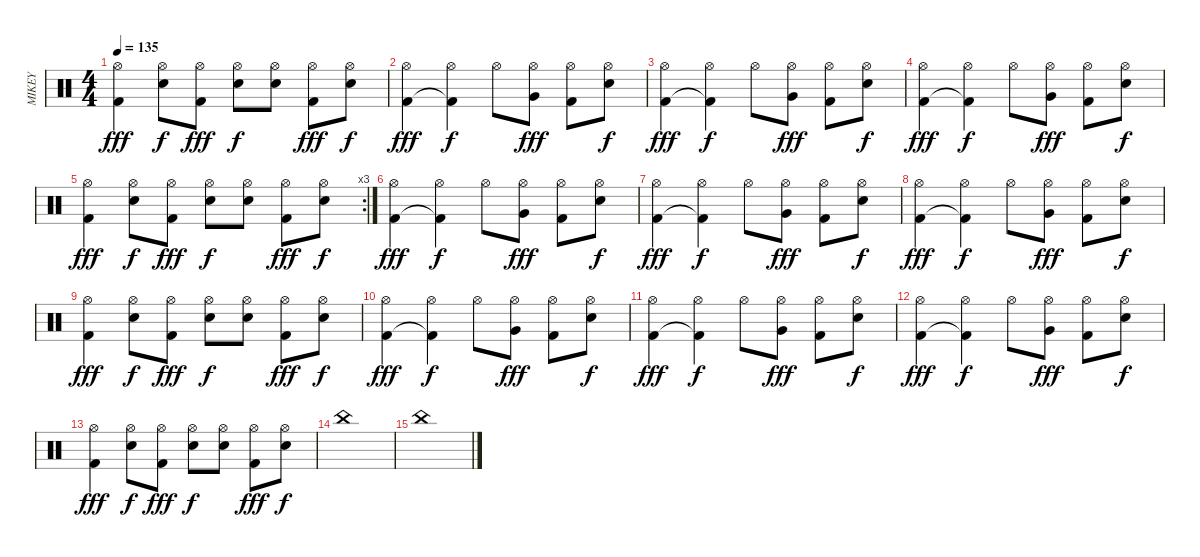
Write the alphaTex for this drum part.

\track ("MIKEY" "MIKEY") {instrument percussion}
\staff {score}
\articulation defaults
\ts (4 4)
\tempo 135
\clef neutral
\ks c
("Hi-Hat (open)" "Kick (hit) 2").4{dy fff} ("Hi-Hat (open)" "Electric Snare (hit)").8{dy f} ("Hi-Hat (open)" "Kick (hit) 2").8{dy fff} ("Hi-Hat (open)" "Electric Snare (hit)").8{dy f} ("Hi-Hat (open)" "Electric Snare (hit)").8 ("Hi-Hat (open)" "Kick (hit) 2").8{dy fff} ("Hi-Hat (open)" "Electric Snare (hit)").8{dy f} |
("Hi-Hat (open)" "Kick (hit) 2").4{dy fff} ("Hi-Hat (open)" "Kick (hit) 2"{t}).4{dy f} "Hi-Hat (open)".8 ("Hi-Hat (open)" "Very Low Tom (hit)").8{dy fff} ("Hi-Hat (open)" "Kick (hit) 2").8 ("Hi-Hat (open)" "Electric Snare (hit)").8{dy f} |
("Hi-Hat (open)" "Kick (hit) 2").4{dy fff} ("Hi-Hat (open)" "Kick (hit) 2"{t}).4{dy f} "Hi-Hat (open)".8 ("Hi-Hat (open)" "Very Low Tom (hit)").8{dy fff} ("Hi-Hat (open)" "Kick (hit) 2").8 ("Hi-Hat (open)" "Electric Snare (hit)").8{dy f} |
("Hi-Hat (open)" "Kick (hit) 2").4{dy fff} ("Hi-Hat (open)" "Kick (hit) 2"{t}).4{dy f} "Hi-Hat (open)".8 ("Hi-Hat (open)" "Very Low Tom (hit)").8{dy fff} ("Hi-Hat (open)" "Kick (hit) 2").8 ("Hi-Hat (open)" "Electric Snare (hit)").8{dy f} |
\rc 3
("Hi-Hat (open)" "Kick (hit) 2").4{dy fff} ("Hi-Hat (open)" "Electric Snare (hit)").8{dy f} ("Hi-Hat (open)" "Kick (hit) 2").8{dy fff} ("Hi-Hat (open)" "Electric Snare (hit)").8{dy f} ("Hi-Hat (open)" "Electric Snare (hit)").8 ("Hi-Hat (open)" "Kick (hit) 2").8{dy fff} ("Hi-Hat (open)" "Electric Snare (hit)").8{dy f} |
("Hi-Hat (open)" "Kick (hit) 2").4{dy fff} ("Hi-Hat (open)" "Kick (hit) 2"{t}).4{dy f} "Hi-Hat (open)".8 ("Hi-Hat (open)" "Very Low Tom (hit)").8{dy fff} ("Hi-Hat (open)" "Kick (hit) 2").8 ("Hi-Hat (open)" "Electric Snare (hit)").8{dy f} |
("Hi-Hat (open)" "Kick (hit) 2").4{dy fff} ("Hi-Hat (open)" "Kick (hit) 2"{t}).4{dy f} "Hi-Hat (open)".8 ("Hi-Hat (open)" "Very Low Tom (hit)").8{dy fff} ("Hi-Hat (open)" "Kick (hit) 2").8 ("Hi-Hat (open)" "Electric Snare (hit)").8{dy f} |
("Hi-Hat (open)" "Kick (hit) 2").4{dy fff} ("Hi-Hat (open)" "Kick (hit) 2"{t}).4{dy f} "Hi-Hat (open)".8 ("Hi-Hat (open)" "Very Low Tom (hit)").8{dy fff} ("Hi-Hat (open)" "Kick (hit) 2").8 ("Hi-Hat (open)" "Electric Snare (hit)").8{dy f} |
("Hi-Hat (open)" "Kick (hit) 2").4{dy fff} ("Hi-Hat (open)" "Electric Snare (hit)").8{dy f} ("Hi-Hat (open)" "Kick (hit) 2").8{dy fff} ("Hi-Hat (open)" "Electric Snare (hit)").8{dy f} ("Hi-Hat (open)" "Electric Snare (hit)").8 ("Hi-Hat (open)" "Kick (hit) 2").8{dy fff} ("Hi-Hat (open)" "Electric Snare (hit)").8{dy f} |
("Hi-Hat (open)" "Kick (hit) 2").4{dy fff} ("Hi-Hat (open)" "Kick (hit) 2"{t}).4{dy f} "Hi-Hat (open)".8 ("Hi-Hat (open)" "Very Low Tom (hit)").8{dy fff} ("Hi-Hat (open)" "Kick (hit) 2").8 ("Hi-Hat (open)" "Electric Snare (hit)").8{dy f} |
("Hi-Hat (open)" "Kick (hit) 2").4{dy fff} ("Hi-Hat (open)" "Kick (hit) 2"{t}).4{dy f} "Hi-Hat (open)".8 ("Hi-Hat (open)" "Very Low Tom (hit)").8{dy fff} ("Hi-Hat (open)" "Kick (hit) 2").8 ("Hi-Hat (open)" "Electric Snare (hit)").8{dy f} |
("Hi-Hat (open)" "Kick (hit) 2").4{dy fff} ("Hi-Hat (open)" "Kick (hit) 2"{t}).4{dy f} "Hi-Hat (open)".8 ("Hi-Hat (open)" "Very Low Tom (hit)").8{dy fff} ("Hi-Hat (open)" "Kick (hit) 2").8 ("Hi-Hat (open)" "Electric Snare (hit)").8{dy f} |
("Hi-Hat (open)" "Kick (hit) 2").4{dy fff} ("Hi-Hat (open)" "Electric Snare (hit)").8{dy f} ("Hi-Hat (open)" "Kick (hit) 2").8{dy fff} ("Hi-Hat (open)" "Electric Snare (hit)").8{dy f} ("Hi-Hat (open)" "Electric Snare (hit)").8 ("Hi-Hat (open)" "Kick (hit) 2").8{dy fff} ("Hi-Hat (open)" "Electric Snare (hit)").8{dy f} |
"China (hit)".1 |
"China (hit)".1
